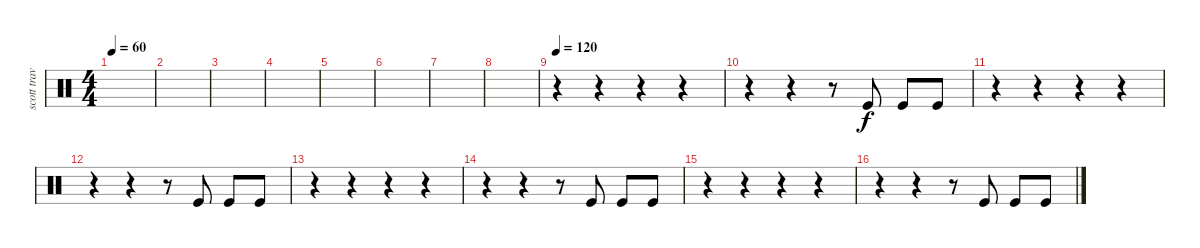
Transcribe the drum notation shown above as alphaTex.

\track ("scott travis" "scott trav") {instrument percussion}
\staff {score}
\articulation defaults
\ts (4 4)
\tempo 60
\clef neutral
\ks c
|
|
|
|
|
|
|
|
\tempo 120
r.4 r.4 r.4 r.4 |
r.4 r.4 r.8 "Kick (hit)".8 "Kick (hit)".8 "Kick (hit)".8 |
r.4 r.4 r.4 r.4 |
r.4 r.4 r.8 "Kick (hit)".8 "Kick (hit)".8 "Kick (hit)".8 |
r.4 r.4 r.4 r.4 |
r.4 r.4 r.8 "Kick (hit)".8 "Kick (hit)".8 "Kick (hit)".8 |
r.4 r.4 r.4 r.4 |
r.4 r.4 r.8 "Kick (hit)".8 "Kick (hit)".8 "Kick (hit)".8
